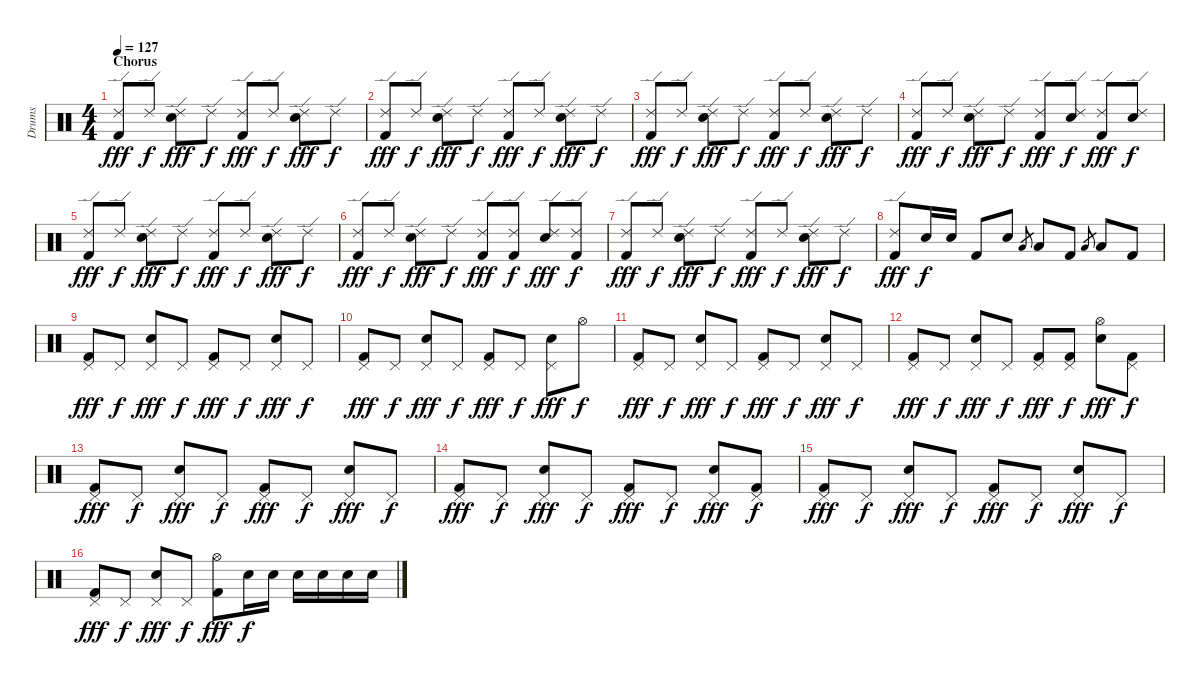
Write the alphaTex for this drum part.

\track ("Drums" "Drums") {instrument percussion}
\staff {score}
\articulation defaults
\ts (4 4)
\section ("" "Chorus")
\tempo 127
\clef neutral
\ks c
("Ride (edge) 2" "Kick (hit) 2").8{dy fff} "Ride (edge) 2".8{dy f} ("Ride (edge) 2" "Snare (hit) 2").8{dy fff} "Ride (edge) 2".8{dy f} ("Ride (edge) 2" "Kick (hit) 2").8{dy fff} "Ride (edge) 2".8{dy f} ("Ride (edge) 2" "Snare (hit) 2").8{dy fff} "Ride (edge) 2".8{dy f} |
("Ride (edge) 2" "Kick (hit) 2").8{dy fff} "Ride (edge) 2".8{dy f} ("Ride (edge) 2" "Snare (hit) 2").8{dy fff} "Ride (edge) 2".8{dy f} ("Ride (edge) 2" "Kick (hit) 2").8{dy fff} "Ride (edge) 2".8{dy f} ("Ride (edge) 2" "Snare (hit) 2").8{dy fff} "Ride (edge) 2".8{dy f} |
("Ride (edge) 2" "Kick (hit) 2").8{dy fff} "Ride (edge) 2".8{dy f} ("Ride (edge) 2" "Snare (hit) 2").8{dy fff} "Ride (edge) 2".8{dy f} ("Ride (edge) 2" "Kick (hit) 2").8{dy fff} "Ride (edge) 2".8{dy f} ("Ride (edge) 2" "Snare (hit) 2").8{dy fff} "Ride (edge) 2".8{dy f} |
("Ride (edge) 2" "Kick (hit) 2").8{dy fff} "Ride (edge) 2".8{dy f} ("Ride (edge) 2" "Snare (hit) 2").8{dy fff} "Ride (edge) 2".8{dy f} ("Ride (edge) 2" "Kick (hit) 2").8{dy fff} ("Ride (edge) 2" "Snare (hit) 2").8{dy f} ("Ride (edge) 2" "Kick (hit) 2").8{dy fff} ("Ride (edge) 2" "Snare (hit) 2").8{dy f} |
("Ride (edge) 2" "Kick (hit) 2").8{dy fff} "Ride (edge) 2".8{dy f} ("Ride (edge) 2" "Snare (hit) 2").8{dy fff} "Ride (edge) 2".8{dy f} ("Ride (edge) 2" "Kick (hit) 2").8{dy fff} "Ride (edge) 2".8{dy f} ("Ride (edge) 2" "Snare (hit) 2").8{dy fff} "Ride (edge) 2".8{dy f} |
("Ride (edge) 2" "Kick (hit) 2").8{dy fff} "Ride (edge) 2".8{dy f} ("Ride (edge) 2" "Snare (hit) 2").8{dy fff} "Ride (edge) 2".8{dy f} ("Ride (edge) 2" "Kick (hit) 2").8{dy fff} ("Ride (edge) 2" "Kick (hit) 2").8{dy f} ("Ride (edge) 2" "Snare (hit) 2").8{dy fff} ("Ride (edge) 2" "Kick (hit) 2").8{dy f} |
("Ride (edge) 2" "Kick (hit) 2").8{dy fff} "Ride (edge) 2".8{dy f} ("Ride (edge) 2" "Snare (hit) 2").8{dy fff} "Ride (edge) 2".8{dy f} ("Ride (edge) 2" "Kick (hit) 2").8{dy fff} "Ride (edge) 2".8{dy f} ("Ride (edge) 2" "Snare (hit) 2").8{dy fff} "Ride (edge) 2".8{dy f} |
("Ride (edge) 2" "Kick (hit) 2").8{dy fff} "Snare (hit) 2".16{dy f} "Snare (hit) 2".16 "Kick (hit) 2".8 "Snare (hit) 2".8 "Low Tom (hit)".8{gr} "Low Tom (hit)".8 "Kick (hit) 2".8 "Low Floor Tom (hit)".8{gr} "Low Floor Tom (hit)".8 "Kick (hit) 2".8 |
("Pedal Hi-Hat (hit)" "Kick (hit) 2").8{dy fff} "Pedal Hi-Hat (hit)".8{dy f} ("Pedal Hi-Hat (hit)" "Snare (hit) 2").8{dy fff} "Pedal Hi-Hat (hit)".8{dy f} ("Pedal Hi-Hat (hit)" "Kick (hit) 2").8{dy fff} "Pedal Hi-Hat (hit)".8{dy f} ("Pedal Hi-Hat (hit)" "Snare (hit) 2").8{dy fff} "Pedal Hi-Hat (hit)".8{dy f} |
("Pedal Hi-Hat (hit)" "Kick (hit) 2").8{dy fff} "Pedal Hi-Hat (hit)".8{dy f} ("Pedal Hi-Hat (hit)" "Snare (hit) 2").8{dy fff} "Pedal Hi-Hat (hit)".8{dy f} ("Pedal Hi-Hat (hit)" "Kick (hit) 2").8{dy fff} "Pedal Hi-Hat (hit)".8{dy f} ("Pedal Hi-Hat (hit)" "Snare (hit) 2").8{dy fff} "Hi-Hat (open)".8{dy f} |
("Pedal Hi-Hat (hit)" "Kick (hit) 2").8{dy fff} "Pedal Hi-Hat (hit)".8{dy f} ("Pedal Hi-Hat (hit)" "Snare (hit) 2").8{dy fff} "Pedal Hi-Hat (hit)".8{dy f} ("Pedal Hi-Hat (hit)" "Kick (hit) 2").8{dy fff} "Pedal Hi-Hat (hit)".8{dy f} ("Pedal Hi-Hat (hit)" "Snare (hit) 2").8{dy fff} "Pedal Hi-Hat (hit)".8{dy f} |
("Pedal Hi-Hat (hit)" "Kick (hit) 2").8{dy fff} "Pedal Hi-Hat (hit)".8{dy f} ("Pedal Hi-Hat (hit)" "Snare (hit) 2").8{dy fff} "Pedal Hi-Hat (hit)".8{dy f} ("Pedal Hi-Hat (hit)" "Kick (hit) 2").8{dy fff} ("Pedal Hi-Hat (hit)" "Kick (hit) 2").8{dy f} ("Hi-Hat (open)" "Snare (hit) 2").8{dy fff} ("Pedal Hi-Hat (hit)" "Kick (hit) 2").8{dy f} |
("Pedal Hi-Hat (hit)" "Kick (hit) 2").8{dy fff} "Pedal Hi-Hat (hit)".8{dy f} ("Pedal Hi-Hat (hit)" "Snare (hit) 2").8{dy fff} "Pedal Hi-Hat (hit)".8{dy f} ("Pedal Hi-Hat (hit)" "Kick (hit) 2").8{dy fff} "Pedal Hi-Hat (hit)".8{dy f} ("Pedal Hi-Hat (hit)" "Snare (hit) 2").8{dy fff} "Pedal Hi-Hat (hit)".8{dy f} |
("Pedal Hi-Hat (hit)" "Kick (hit) 2").8{dy fff} "Pedal Hi-Hat (hit)".8{dy f} ("Pedal Hi-Hat (hit)" "Snare (hit) 2").8{dy fff} "Pedal Hi-Hat (hit)".8{dy f} ("Pedal Hi-Hat (hit)" "Kick (hit) 2").8{dy fff} "Pedal Hi-Hat (hit)".8{dy f} ("Pedal Hi-Hat (hit)" "Snare (hit) 2").8{dy fff} ("Pedal Hi-Hat (hit)" "Kick (hit) 2").8{dy f} |
("Pedal Hi-Hat (hit)" "Kick (hit) 2").8{dy fff} "Pedal Hi-Hat (hit)".8{dy f} ("Pedal Hi-Hat (hit)" "Snare (hit) 2").8{dy fff} "Pedal Hi-Hat (hit)".8{dy f} ("Pedal Hi-Hat (hit)" "Kick (hit) 2").8{dy fff} "Pedal Hi-Hat (hit)".8{dy f} ("Pedal Hi-Hat (hit)" "Snare (hit) 2").8{dy fff} "Pedal Hi-Hat (hit)".8{dy f} |
("Pedal Hi-Hat (hit)" "Kick (hit) 2").8{dy fff} "Pedal Hi-Hat (hit)".8{dy f} ("Pedal Hi-Hat (hit)" "Snare (hit) 2").8{dy fff} "Pedal Hi-Hat (hit)".8{dy f} ("Hi-Hat (open)" "Kick (hit) 2").8{dy fff} "Snare (hit) 2".16{dy f} "Snare (hit) 2".16 "Snare (hit) 2".16 "Snare (hit) 2".16 "Snare (hit) 2".16 "Snare (hit) 2".16
